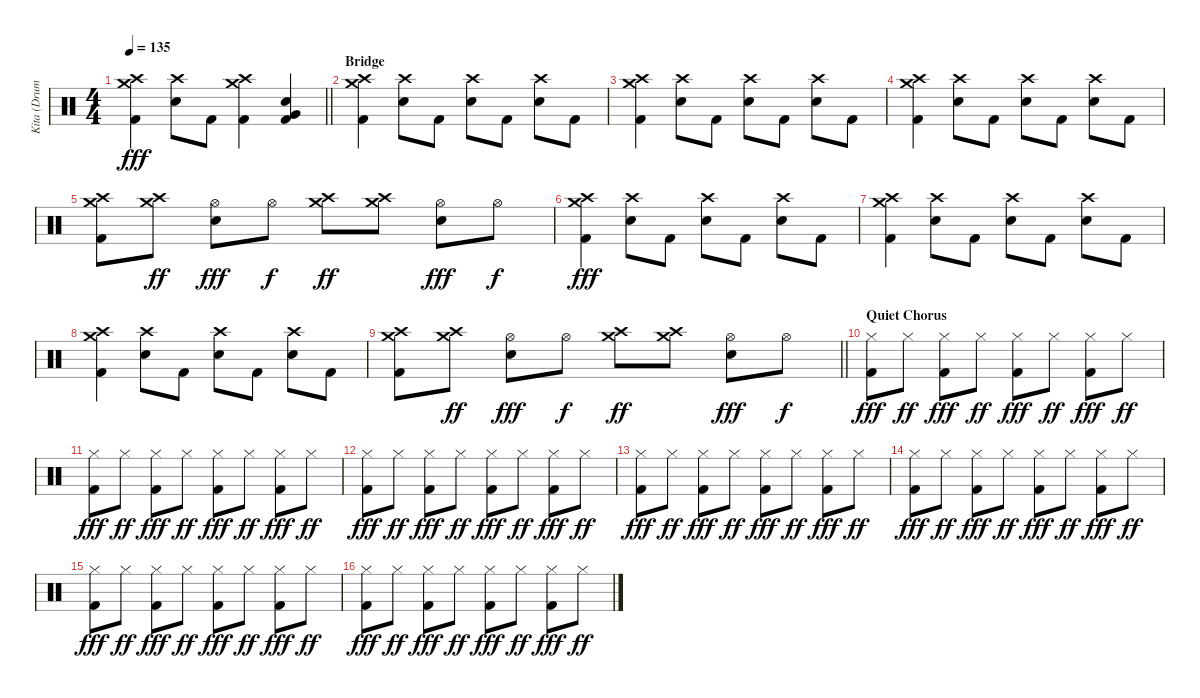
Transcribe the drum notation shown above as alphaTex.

\track ("Kita (Drums)" "Kita (Drum") {instrument percussion}
\staff {score}
\articulation defaults
\ts (4 4)
\tempo 135
\clef neutral
\barLineRight lightlight
\ks c
("Crash medium (hit)" "Crash high (hit)" "Kick (hit) 2").4{dy fff} ("Crash high (hit)" "Electric Snare (hit)").8 "Kick (hit) 2".8 ("Crash medium (hit)" "Crash high (hit)" "Kick (hit) 2").4 ("Very Low Tom (hit)" "Electric Snare (hit)" "Kick (hit) 2").4 |
\section ("" "Bridge")
("Crash medium (hit)" "Crash high (hit)" "Kick (hit) 2").4 ("Crash high (hit)" "Electric Snare (hit)").8 "Kick (hit) 2".8 ("Crash high (hit)" "Electric Snare (hit)").8 "Kick (hit) 2".8 ("Crash high (hit)" "Electric Snare (hit)").8 "Kick (hit) 2".8 |
("Crash medium (hit)" "Crash high (hit)" "Kick (hit) 2").4 ("Crash high (hit)" "Electric Snare (hit)").8 "Kick (hit) 2".8 ("Crash high (hit)" "Electric Snare (hit)").8 "Kick (hit) 2".8 ("Crash high (hit)" "Electric Snare (hit)").8 "Kick (hit) 2".8 |
("Crash medium (hit)" "Crash high (hit)" "Kick (hit) 2").4 ("Crash high (hit)" "Electric Snare (hit)").8 "Kick (hit) 2".8 ("Crash high (hit)" "Electric Snare (hit)").8 "Kick (hit) 2".8 ("Crash high (hit)" "Electric Snare (hit)").8 "Kick (hit) 2".8 |
("Crash medium (hit)" "Crash high (hit)" "Kick (hit) 2").8 ("Crash medium (hit)" "Crash high (hit)").8{dy ff} ("Hi-Hat (open)" "Electric Snare (hit)").8{dy fff} "Hi-Hat (open)".8{dy f} ("Crash medium (hit)" "Crash high (hit)").8{dy ff} ("Crash medium (hit)" "Crash high (hit)").8 ("Hi-Hat (open)" "Electric Snare (hit)").8{dy fff} "Hi-Hat (open)".8{dy f} |
("Crash medium (hit)" "Crash high (hit)" "Kick (hit) 2").4{dy fff} ("Crash high (hit)" "Electric Snare (hit)").8 "Kick (hit) 2".8 ("Crash high (hit)" "Electric Snare (hit)").8 "Kick (hit) 2".8 ("Crash high (hit)" "Electric Snare (hit)").8 "Kick (hit) 2".8 |
("Crash medium (hit)" "Crash high (hit)" "Kick (hit) 2").4 ("Crash high (hit)" "Electric Snare (hit)").8 "Kick (hit) 2".8 ("Crash high (hit)" "Electric Snare (hit)").8 "Kick (hit) 2".8 ("Crash high (hit)" "Electric Snare (hit)").8 "Kick (hit) 2".8 |
("Crash medium (hit)" "Crash high (hit)" "Kick (hit) 2").4 ("Crash high (hit)" "Electric Snare (hit)").8 "Kick (hit) 2".8 ("Crash high (hit)" "Electric Snare (hit)").8 "Kick (hit) 2".8 ("Crash high (hit)" "Electric Snare (hit)").8 "Kick (hit) 2".8 |
\barLineRight lightlight
("Crash medium (hit)" "Crash high (hit)" "Kick (hit) 2").8 ("Crash medium (hit)" "Crash high (hit)").8{dy ff} ("Hi-Hat (open)" "Electric Snare (hit)").8{dy fff} "Hi-Hat (open)".8{dy f} ("Crash medium (hit)" "Crash high (hit)").8{dy ff} ("Crash medium (hit)" "Crash high (hit)").8 ("Hi-Hat (open)" "Electric Snare (hit)").8{dy fff} "Hi-Hat (open)".8{dy f} |
\section ("" "Quiet Chorus")
("Hi-Hat (closed)" "Kick (hit) 2").8{dy fff} "Hi-Hat (closed)".8{dy ff} ("Hi-Hat (closed)" "Kick (hit) 2").8{dy fff} "Hi-Hat (closed)".8{dy ff} ("Hi-Hat (closed)" "Kick (hit) 2").8{dy fff} "Hi-Hat (closed)".8{dy ff} ("Hi-Hat (closed)" "Kick (hit) 2").8{dy fff} "Hi-Hat (closed)".8{dy ff} |
("Hi-Hat (closed)" "Kick (hit) 2").8{dy fff} "Hi-Hat (closed)".8{dy ff} ("Hi-Hat (closed)" "Kick (hit) 2").8{dy fff} "Hi-Hat (closed)".8{dy ff} ("Hi-Hat (closed)" "Kick (hit) 2").8{dy fff} "Hi-Hat (closed)".8{dy ff} ("Hi-Hat (closed)" "Kick (hit) 2").8{dy fff} "Hi-Hat (closed)".8{dy ff} |
("Hi-Hat (closed)" "Kick (hit) 2").8{dy fff} "Hi-Hat (closed)".8{dy ff} ("Hi-Hat (closed)" "Kick (hit) 2").8{dy fff} "Hi-Hat (closed)".8{dy ff} ("Hi-Hat (closed)" "Kick (hit) 2").8{dy fff} "Hi-Hat (closed)".8{dy ff} ("Hi-Hat (closed)" "Kick (hit) 2").8{dy fff} "Hi-Hat (closed)".8{dy ff} |
("Hi-Hat (closed)" "Kick (hit) 2").8{dy fff} "Hi-Hat (closed)".8{dy ff} ("Hi-Hat (closed)" "Kick (hit) 2").8{dy fff} "Hi-Hat (closed)".8{dy ff} ("Hi-Hat (closed)" "Kick (hit) 2").8{dy fff} "Hi-Hat (closed)".8{dy ff} ("Hi-Hat (closed)" "Kick (hit) 2").8{dy fff} "Hi-Hat (closed)".8{dy ff} |
("Hi-Hat (closed)" "Kick (hit) 2").8{dy fff} "Hi-Hat (closed)".8{dy ff} ("Hi-Hat (closed)" "Kick (hit) 2").8{dy fff} "Hi-Hat (closed)".8{dy ff} ("Hi-Hat (closed)" "Kick (hit) 2").8{dy fff} "Hi-Hat (closed)".8{dy ff} ("Hi-Hat (closed)" "Kick (hit) 2").8{dy fff} "Hi-Hat (closed)".8{dy ff} |
("Hi-Hat (closed)" "Kick (hit) 2").8{dy fff} "Hi-Hat (closed)".8{dy ff} ("Hi-Hat (closed)" "Kick (hit) 2").8{dy fff} "Hi-Hat (closed)".8{dy ff} ("Hi-Hat (closed)" "Kick (hit) 2").8{dy fff} "Hi-Hat (closed)".8{dy ff} ("Hi-Hat (closed)" "Kick (hit) 2").8{dy fff} "Hi-Hat (closed)".8{dy ff} |
("Hi-Hat (closed)" "Kick (hit) 2").8{dy fff} "Hi-Hat (closed)".8{dy ff} ("Hi-Hat (closed)" "Kick (hit) 2").8{dy fff} "Hi-Hat (closed)".8{dy ff} ("Hi-Hat (closed)" "Kick (hit) 2").8{dy fff} "Hi-Hat (closed)".8{dy ff} ("Hi-Hat (closed)" "Kick (hit) 2").8{dy fff} "Hi-Hat (closed)".8{dy ff}
